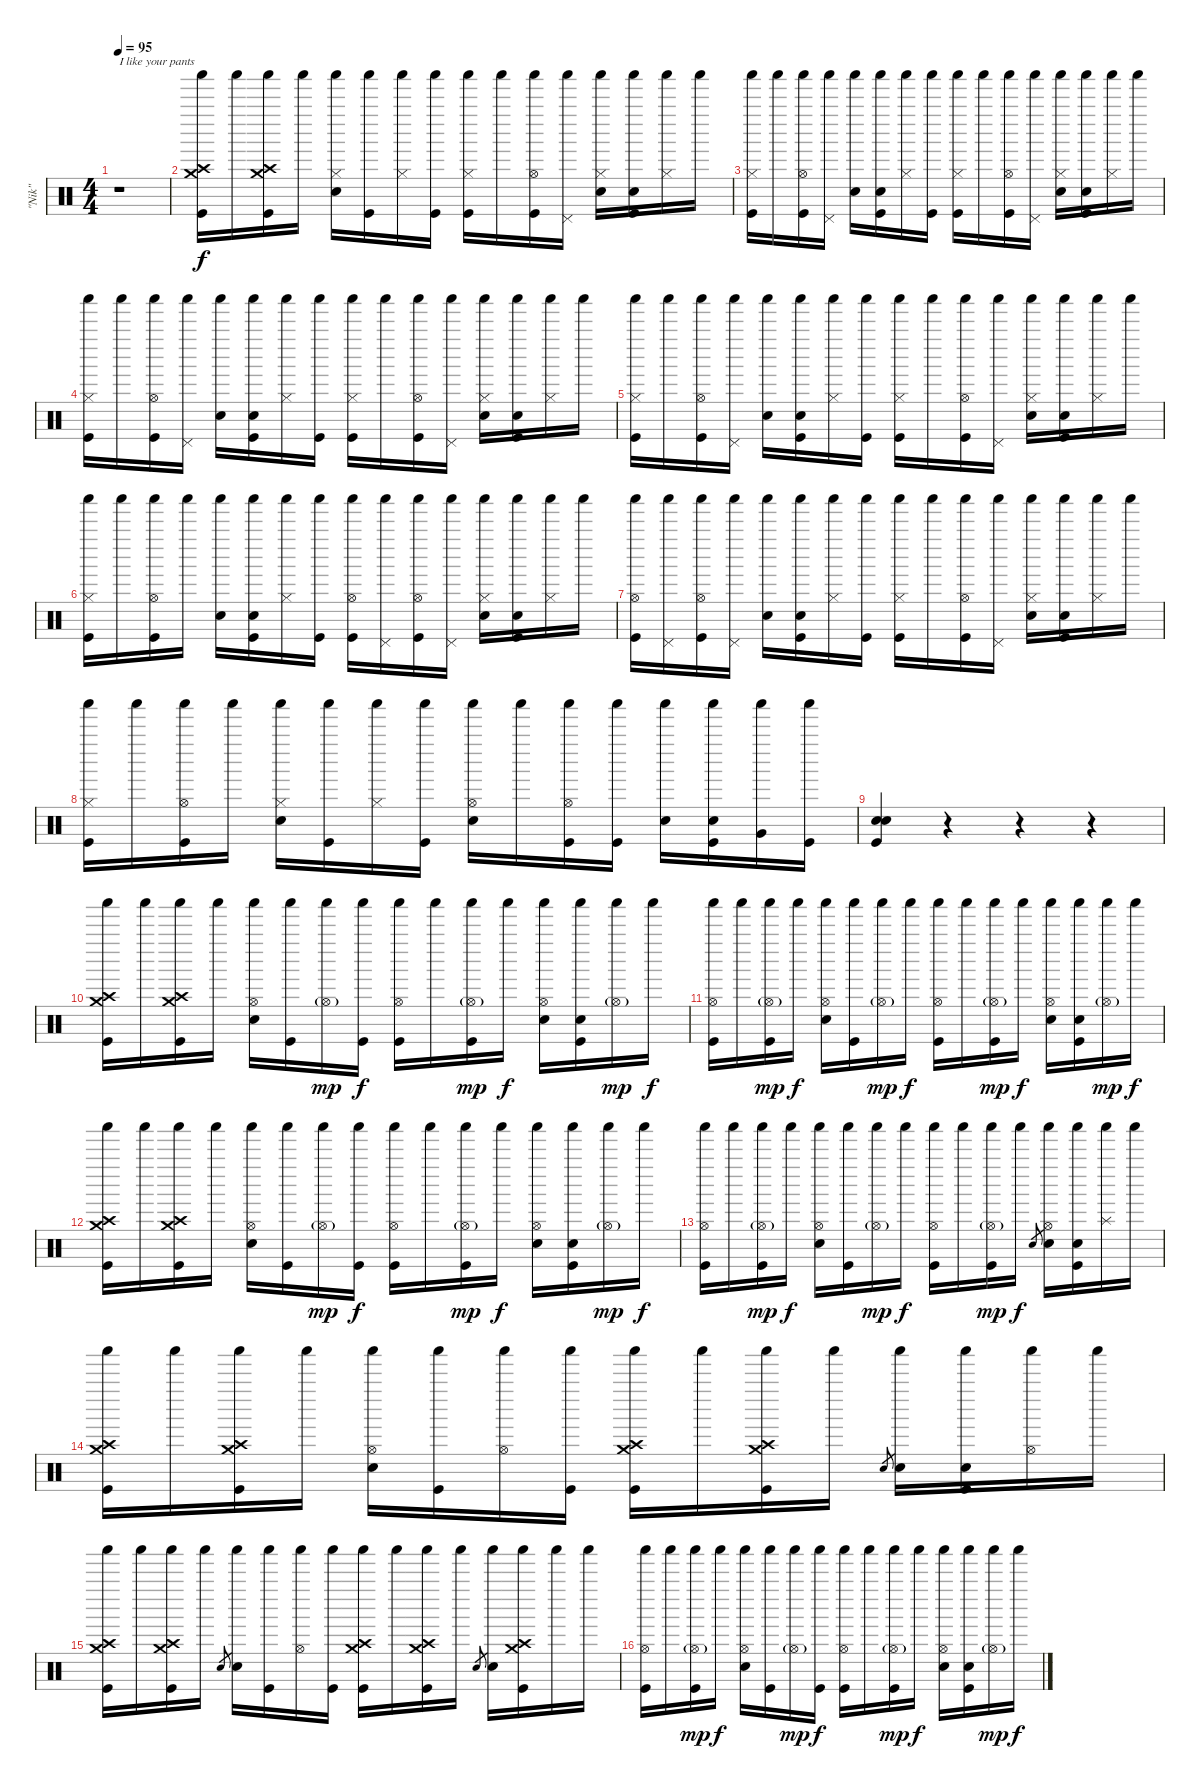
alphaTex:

\track ("\"Nik\"" "\"Nik\"") {instrument percussion}
\staff {score}
\articulation defaults
\ts (4 4)
\tempo 95
\clef neutral
\ks c
r.1{txt "I like your pants" dy f} |
("Shaker (hit)" "Crash medium (hit)" "Crash high (hit)" "Kick (hit)").16 "Shaker (hit)".16 ("Shaker (hit)" "Crash medium (hit)" "Crash high (hit)" "Kick (hit)").16 "Shaker (hit)".16 ("Shaker (hit)" "Hi-Hat (closed)" "Snare (hit) 2").16 ("Shaker (hit)" "Kick (hit)").16 ("Shaker (hit)" "Hi-Hat (closed)").16 ("Shaker (hit)" "Kick (hit)").16 ("Shaker (hit)" "Hi-Hat (closed)" "Kick (hit)").16 "Shaker (hit)".16 ("Shaker (hit)" "Hi-Hat (open)" "Kick (hit)").16 ("Shaker (hit)" "Pedal Hi-Hat (hit)").16 ("Shaker (hit)" "Hi-Hat (closed)" "Snare (hit) 2").16 ("Shaker (hit)" "Snare (hit)"{x} "Kick (hit)").16 ("Shaker (hit)" "Hi-Hat (closed)").16 "Shaker (hit)".16 |
("Shaker (hit)" "Hi-Hat (closed)" "Kick (hit)").16 "Shaker (hit)".16 ("Shaker (hit)" "Hi-Hat (open)" "Kick (hit)").16 ("Shaker (hit)" "Pedal Hi-Hat (hit)").16 ("Shaker (hit)" "Snare (hit) 2").16 ("Shaker (hit)" "Snare (hit)"{x} "Kick (hit)").16 ("Shaker (hit)" "Hi-Hat (closed)").16 ("Shaker (hit)" "Kick (hit)").16 ("Shaker (hit)" "Hi-Hat (closed)" "Kick (hit)").16 "Shaker (hit)".16 ("Shaker (hit)" "Hi-Hat (open)" "Kick (hit)").16 ("Shaker (hit)" "Pedal Hi-Hat (hit)").16 ("Shaker (hit)" "Hi-Hat (closed)" "Snare (hit) 2").16 ("Shaker (hit)" "Snare (hit)"{x} "Kick (hit)").16 ("Shaker (hit)" "Hi-Hat (closed)").16 "Shaker (hit)".16 |
("Shaker (hit)" "Hi-Hat (closed)" "Kick (hit)").16 "Shaker (hit)".16 ("Shaker (hit)" "Hi-Hat (open)" "Kick (hit)").16 ("Shaker (hit)" "Pedal Hi-Hat (hit)").16 ("Shaker (hit)" "Snare (hit) 2").16 ("Shaker (hit)" "Snare (hit)"{x} "Kick (hit)").16 ("Shaker (hit)" "Hi-Hat (closed)").16 ("Shaker (hit)" "Kick (hit)").16 ("Shaker (hit)" "Hi-Hat (closed)" "Kick (hit)").16 "Shaker (hit)".16 ("Shaker (hit)" "Hi-Hat (open)" "Kick (hit)").16 ("Shaker (hit)" "Pedal Hi-Hat (hit)").16 ("Shaker (hit)" "Hi-Hat (closed)" "Snare (hit) 2").16 ("Shaker (hit)" "Snare (hit)"{x} "Kick (hit)").16 ("Shaker (hit)" "Hi-Hat (closed)").16 "Shaker (hit)".16 |
("Shaker (hit)" "Hi-Hat (closed)" "Kick (hit)").16 "Shaker (hit)".16 ("Shaker (hit)" "Hi-Hat (open)" "Kick (hit)").16 ("Shaker (hit)" "Pedal Hi-Hat (hit)").16 ("Shaker (hit)" "Snare (hit) 2").16 ("Shaker (hit)" "Snare (hit)"{x} "Kick (hit)").16 ("Shaker (hit)" "Hi-Hat (closed)").16 ("Shaker (hit)" "Kick (hit)").16 ("Shaker (hit)" "Hi-Hat (closed)" "Kick (hit)").16 "Shaker (hit)".16 ("Shaker (hit)" "Hi-Hat (open)" "Kick (hit)").16 ("Shaker (hit)" "Pedal Hi-Hat (hit)").16 ("Shaker (hit)" "Hi-Hat (closed)" "Snare (hit) 2").16 ("Shaker (hit)" "Snare (hit)"{x} "Kick (hit)").16 ("Shaker (hit)" "Hi-Hat (closed)").16 "Shaker (hit)".16 |
("Shaker (hit)" "Hi-Hat (closed)" "Kick (hit)").16 "Shaker (hit)".16 ("Shaker (hit)" "Hi-Hat (open)" "Kick (hit)").16 "Shaker (hit)".16 ("Shaker (hit)" "Snare (hit) 2").16 ("Shaker (hit)" "Snare (hit)"{x} "Kick (hit)").16 ("Shaker (hit)" "Hi-Hat (closed)").16 ("Shaker (hit)" "Kick (hit)").16 ("Shaker (hit)" "Hi-Hat (open)" "Kick (hit)").16 ("Shaker (hit)" "Pedal Hi-Hat (hit)").16 ("Shaker (hit)" "Hi-Hat (open)" "Kick (hit)").16 ("Shaker (hit)" "Pedal Hi-Hat (hit)").16 ("Shaker (hit)" "Hi-Hat (closed)" "Snare (hit) 2").16 ("Shaker (hit)" "Snare (hit)"{x} "Kick (hit)").16 ("Shaker (hit)" "Hi-Hat (closed)").16 "Shaker (hit)".16 |
("Shaker (hit)" "Hi-Hat (open)" "Kick (hit)").16 ("Shaker (hit)" "Pedal Hi-Hat (hit)").16 ("Shaker (hit)" "Hi-Hat (open)" "Kick (hit)").16 ("Shaker (hit)" "Pedal Hi-Hat (hit)").16 ("Shaker (hit)" "Snare (hit) 2").16 ("Shaker (hit)" "Snare (hit)"{x} "Kick (hit)").16 ("Shaker (hit)" "Hi-Hat (closed)").16 ("Shaker (hit)" "Kick (hit)").16 ("Shaker (hit)" "Hi-Hat (closed)" "Kick (hit)").16 "Shaker (hit)".16 ("Shaker (hit)" "Hi-Hat (open)" "Kick (hit)").16 ("Shaker (hit)" "Pedal Hi-Hat (hit)").16 ("Shaker (hit)" "Hi-Hat (closed)" "Snare (hit) 2").16 ("Shaker (hit)" "Snare (hit)"{x} "Kick (hit)").16 ("Shaker (hit)" "Hi-Hat (closed)").16 "Shaker (hit)".16 |
("Shaker (hit)" "Hi-Hat (closed)" "Kick (hit)").16 "Shaker (hit)".16 ("Shaker (hit)" "Hi-Hat (open)" "Kick (hit)").16 "Shaker (hit)".16 ("Shaker (hit)" "Hi-Hat (closed)" "Snare (hit) 2").16 ("Shaker (hit)" "Kick (hit)").16 ("Shaker (hit)" "Hi-Hat (closed)").16 ("Shaker (hit)" "Kick (hit)").16 ("Shaker (hit)" "Hi-Hat (open)" "Snare (hit) 2").16 "Shaker (hit)".16 ("Shaker (hit)" "Hi-Hat (open)" "Kick (hit)").16 ("Shaker (hit)" "Kick (hit)").16 ("Shaker (hit)" "Snare (hit) 2").16 ("Shaker (hit)" "Snare (hit) 2" "Kick (hit)").16 ("Shaker (hit)" "Very Low Tom (hit)").16 ("Shaker (hit)" "Kick (hit)").16 |
("Snare (hit) 2" "Snare (hit) 2" "Kick (hit)").4 r.4 r.4 r.4 |
("Shaker (hit)" "Crash medium (hit)" "Crash high (hit)" "Kick (hit)").16 "Shaker (hit)".16 ("Shaker (hit)" "Crash medium (hit)" "Crash high (hit)" "Kick (hit)").16 "Shaker (hit)".16 ("Shaker (hit)" "Hi-Hat (open)" "Snare (hit) 2").16 ("Shaker (hit)" "Kick (hit)").16 ("Shaker (hit)" "Hi-Hat (open)"{g}).16{dy mp} ("Shaker (hit)" "Kick (hit)").16{dy f} ("Shaker (hit)" "Hi-Hat (open)" "Kick (hit)").16 "Shaker (hit)".16 ("Shaker (hit)" "Hi-Hat (open)"{g} "Kick (hit)").16{dy mp} "Shaker (hit)".16{dy f} ("Shaker (hit)" "Hi-Hat (open)" "Snare (hit) 2").16 ("Shaker (hit)" "Snare (hit)"{x} "Kick (hit)").16 ("Shaker (hit)" "Hi-Hat (open)"{g}).16{dy mp} "Shaker (hit)".16{dy f} |
("Shaker (hit)" "Hi-Hat (open)" "Kick (hit)").16 "Shaker (hit)".16 ("Shaker (hit)" "Hi-Hat (open)"{g} "Kick (hit)").16{dy mp} "Shaker (hit)".16{dy f} ("Shaker (hit)" "Hi-Hat (open)" "Snare (hit) 2").16 ("Shaker (hit)" "Kick (hit)").16 ("Shaker (hit)" "Hi-Hat (open)"{g}).16{dy mp} "Shaker (hit)".16{dy f} ("Shaker (hit)" "Hi-Hat (open)" "Kick (hit)").16 "Shaker (hit)".16 ("Shaker (hit)" "Hi-Hat (open)"{g} "Kick (hit)").16{dy mp} "Shaker (hit)".16{dy f} ("Shaker (hit)" "Hi-Hat (open)" "Snare (hit) 2").16 ("Shaker (hit)" "Snare (hit)"{x} "Kick (hit)").16 ("Shaker (hit)" "Hi-Hat (open)"{g}).16{dy mp} "Shaker (hit)".16{dy f} |
("Shaker (hit)" "Crash medium (hit)" "Crash high (hit)" "Kick (hit)").16 "Shaker (hit)".16 ("Shaker (hit)" "Crash medium (hit)" "Crash high (hit)" "Kick (hit)").16 "Shaker (hit)".16 ("Shaker (hit)" "Hi-Hat (open)" "Snare (hit) 2").16 ("Shaker (hit)" "Kick (hit)").16 ("Shaker (hit)" "Hi-Hat (open)"{g}).16{dy mp} ("Shaker (hit)" "Kick (hit)").16{dy f} ("Shaker (hit)" "Hi-Hat (open)" "Kick (hit)").16 "Shaker (hit)".16 ("Shaker (hit)" "Hi-Hat (open)"{g} "Kick (hit)").16{dy mp} "Shaker (hit)".16{dy f} ("Shaker (hit)" "Hi-Hat (open)" "Snare (hit) 2").16 ("Shaker (hit)" "Snare (hit)"{x} "Kick (hit)").16 ("Shaker (hit)" "Hi-Hat (open)"{g}).16{dy mp} "Shaker (hit)".16{dy f} |
("Shaker (hit)" "Hi-Hat (open)" "Kick (hit)").16 "Shaker (hit)".16 ("Shaker (hit)" "Hi-Hat (open)"{g} "Kick (hit)").16{dy mp} "Shaker (hit)".16{dy f} ("Shaker (hit)" "Hi-Hat (open)" "Snare (hit) 2").16 ("Shaker (hit)" "Kick (hit)").16 ("Shaker (hit)" "Hi-Hat (open)"{g}).16{dy mp} "Shaker (hit)".16{dy f} ("Shaker (hit)" "Hi-Hat (open)" "Kick (hit)").16 "Shaker (hit)".16 ("Shaker (hit)" "Hi-Hat (open)"{g} "Kick (hit)").16{dy mp} "Shaker (hit)".16{dy f} "Snare (hit) 2".8{gr} ("Shaker (hit)" "Hi-Hat (open)" "Snare (hit) 2").16 ("Shaker (hit)" "Snare (hit)"{x} "Kick (hit)").16 ("Shaker (hit)" "Splash (hit)").16 "Shaker (hit)".16 |
("Shaker (hit)" "Crash medium (hit)" "Crash high (hit)" "Kick (hit)").16 "Shaker (hit)".16 ("Shaker (hit)" "Crash medium (hit)" "Crash high (hit)" "Kick (hit)").16 "Shaker (hit)".16 ("Shaker (hit)" "Hi-Hat (open)" "Snare (hit) 2").16 ("Shaker (hit)" "Kick (hit)").16 ("Shaker (hit)" "Hi-Hat (open)").16 ("Shaker (hit)" "Kick (hit)").16 ("Shaker (hit)" "Crash medium (hit)" "Crash high (hit)" "Kick (hit)").16 "Shaker (hit)".16 ("Shaker (hit)" "Crash medium (hit)" "Crash high (hit)" "Kick (hit)").16 "Shaker (hit)".16 "Snare (hit) 2".8{gr} ("Shaker (hit)" "Snare (hit) 2").16 ("Shaker (hit)" "Snare (hit)"{x} "Kick (hit)").16 ("Shaker (hit)" "Hi-Hat (open)").16 "Shaker (hit)".16 |
("Shaker (hit)" "Crash medium (hit)" "Crash high (hit)" "Kick (hit)").16 "Shaker (hit)".16 ("Shaker (hit)" "Crash medium (hit)" "Crash high (hit)" "Kick (hit)").16 "Shaker (hit)".16 "Snare (hit) 2".8{gr} ("Shaker (hit)" "Snare (hit) 2").16 ("Shaker (hit)" "Kick (hit)").16 ("Shaker (hit)" "Hi-Hat (open)").16 ("Shaker (hit)" "Kick (hit)").16 ("Shaker (hit)" "Crash medium (hit)" "Crash high (hit)" "Kick (hit)").16 "Shaker (hit)".16 ("Shaker (hit)" "Crash medium (hit)" "Crash high (hit)" "Kick (hit)").16 "Shaker (hit)".16 "Snare (hit) 2".8{gr} ("Shaker (hit)" "Snare (hit) 2").16 ("Shaker (hit)" "Crash medium (hit)" "Crash high (hit)" "Kick (hit)").16 "Shaker (hit)".16 "Shaker (hit)".16 |
("Shaker (hit)" "Hi-Hat (open)" "Kick (hit)").16 "Shaker (hit)".16 ("Shaker (hit)" "Hi-Hat (open)"{g} "Kick (hit)").16{dy mp} "Shaker (hit)".16{dy f} ("Shaker (hit)" "Hi-Hat (open)" "Snare (hit) 2").16 ("Shaker (hit)" "Kick (hit)").16 ("Shaker (hit)" "Hi-Hat (open)"{g}).16{dy mp} ("Shaker (hit)" "Kick (hit)").16{dy f} ("Shaker (hit)" "Hi-Hat (open)" "Kick (hit)").16 "Shaker (hit)".16 ("Shaker (hit)" "Hi-Hat (open)"{g} "Kick (hit)").16{dy mp} "Shaker (hit)".16{dy f} ("Shaker (hit)" "Hi-Hat (open)" "Snare (hit) 2").16 ("Shaker (hit)" "Snare (hit)"{x} "Kick (hit)").16 ("Shaker (hit)" "Hi-Hat (open)"{g}).16{dy mp} "Shaker (hit)".16{dy f}
